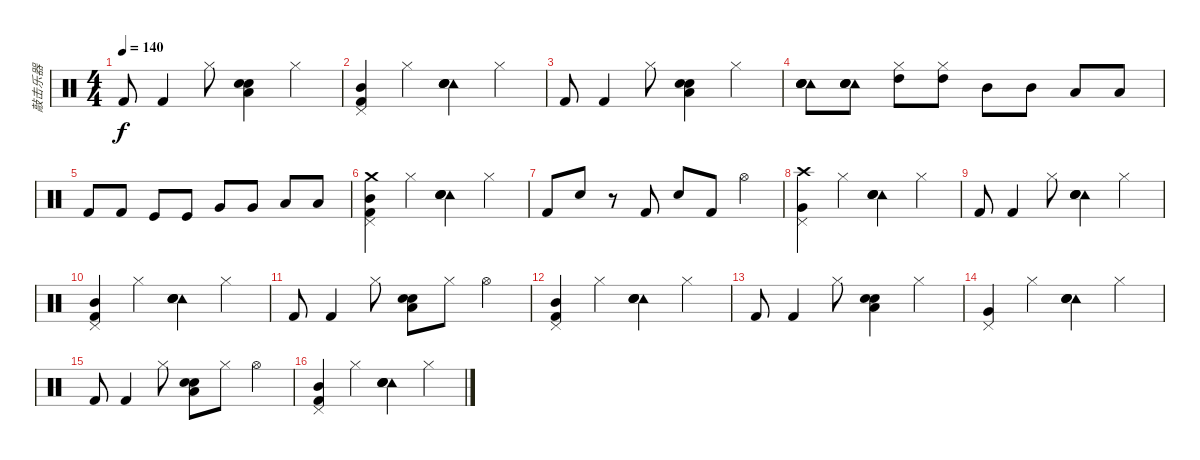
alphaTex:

\track ("敲击乐器" "敲击乐器") {instrument percussion bank 3}
\staff {score}
\articulation defaults
\ts (4 4)
\tempo 140
\clef neutral
\ks c "Kick (hit) 2".8{dy f} "Kick (hit) 2".4 "Hi-Hat (closed)".8
("Low Tom (hit)" "Snare (hit) 2" "Hand Clap (hit)").4 "Hi-Hat (closed)".4 |
("Mid Tom (hit)" "Kick (hit) 2" "Pedal Hi-Hat (hit)").4 "Hi-Hat (closed)".4 ("Tambourine (hit)" "Electric Snare (hit)" "Hand Clap (hit)" "Snare (hit) 2").4 "Hi-Hat (closed)".4 |
"Kick (hit) 2".8 "Kick (hit) 2".4 "Hi-Hat (closed)".8 ("Low Tom (hit)" "Snare (hit) 2" "Hand Clap (hit)").4 "Hi-Hat (closed)".4 |
("Tambourine (hit)" "Electric Snare (hit)" "Hand Clap (hit)" "Snare (hit) 2").8 ("Tambourine (hit)" "Electric Snare (hit)" "Hand Clap (hit)" "Snare (hit) 2").8 ("Hi-Hat (closed)" "High Tom (hit)").8 ("High Tom (hit)" "Hi-Hat (closed)").8 "Mid Tom (hit)".8 "Mid Tom (hit)".8 "Low Tom (hit)".8 "Low Tom (hit)".8 |
"Kick (hit) 2".8 "Kick (hit) 2".8 "Kick (hit)".8 "Kick (hit)".8 "Very Low Tom (hit)".8 "Very Low Tom (hit)".8 "Low Floor Tom (hit)".8 "Low Floor Tom (hit)".8 |
("Crash medium (hit)" "Mid Tom (hit)" "Kick (hit) 2" "Pedal Hi-Hat (hit)").4 "Hi-Hat (closed)".4 ("Tambourine (hit)" "Electric Snare (hit)" "Hand Clap (hit)" "Snare (hit) 2").4 "Hi-Hat (closed)".4 |
"Kick (hit) 2".8 "Snare (hit) 2".8 r.8 "Kick (hit) 2".8 "Snare (hit) 2".8 "Kick (hit) 2".8 "Hi-Hat (open)".4 |
("Very Low Tom (hit)" "Crash high (hit)" "Pedal Hi-Hat (hit)").4 "Hi-Hat (closed)".4 ("Tambourine (hit)" "Electric Snare (hit)" "Hand Clap (hit)" "Snare (hit) 2").4 "Hi-Hat (closed)".4 |
"Kick (hit) 2".8 "Kick (hit) 2".4 "Hi-Hat (closed)".8 ("Tambourine (hit)" "Electric Snare (hit)" "Snare (hit) 2" "Hand Clap (hit)").4 "Hi-Hat (closed)".4 |
("Mid Tom (hit)" "Kick (hit) 2" "Pedal Hi-Hat (hit)").4 "Hi-Hat (closed)".4 ("Tambourine (hit)" "Electric Snare (hit)" "Hand Clap (hit)" "Snare (hit) 2").4 "Hi-Hat (closed)".4 |
"Kick (hit) 2".8 "Kick (hit) 2".4 "Hi-Hat (closed)".8 ("Low Tom (hit)" "Snare (hit) 2" "Hand Clap (hit)").8 "Hi-Hat (closed)".8 "Hi-Hat (open)".4 |
("Mid Tom (hit)" "Kick (hit) 2" "Pedal Hi-Hat (hit)").4 "Hi-Hat (closed)".4 ("Tambourine (hit)" "Electric Snare (hit)" "Hand Clap (hit)" "Snare (hit) 2").4 "Hi-Hat (closed)".4 |
"Kick (hit) 2".8 "Kick (hit) 2".4 "Hi-Hat (closed)".8 ("Low Tom (hit)" "Snare (hit) 2" "Hand Clap (hit)").4 "Hi-Hat (closed)".4 |
("Very Low Tom (hit)" "Pedal Hi-Hat (hit)").4 "Hi-Hat (closed)".4 ("Tambourine (hit)" "Electric Snare (hit)" "Hand Clap (hit)" "Snare (hit) 2").4 "Hi-Hat (closed)".4 |
"Kick (hit) 2".8 "Kick (hit) 2".4 "Hi-Hat (closed)".8 ("Low Tom (hit)" "Snare (hit) 2" "Hand Clap (hit)").8 "Hi-Hat (closed)".8 "Hi-Hat (open)".4 |
("Mid Tom (hit)" "Kick (hit) 2" "Pedal Hi-Hat (hit)").4 "Hi-Hat (closed)".4 ("Tambourine (hit)" "Electric Snare (hit)" "Hand Clap (hit)" "Snare (hit) 2").4 "Hi-Hat (closed)".4
